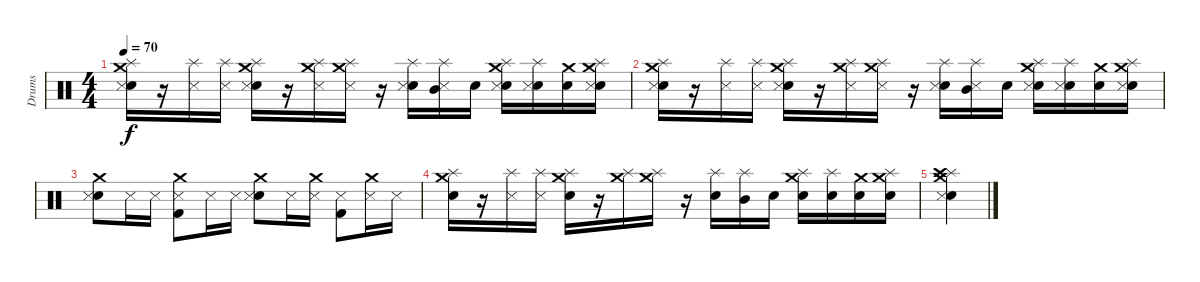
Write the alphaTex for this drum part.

\track ("Drums" "Drums") {instrument percussion}
\staff {score}
\articulation defaults
\ts (4 4)
\tempo 70
\clef neutral
\ks c
("Splash (hit)" "Snare (hit) 2" "Crash medium (hit)" "Snare (side stick) 3").16{dy f} r.16 ("Splash (hit)" "Snare (side stick) 3").16 ("Splash (hit)" "Snare (side stick) 3").16 ("Splash (hit)" "Snare (hit) 2" "Crash medium (hit)" "Snare (side stick) 3").16 r.16 ("Splash (hit)" "Crash medium (hit)" "Snare (side stick) 3").16 ("Splash (hit)" "Crash medium (hit)" "Snare (side stick) 3").16 r.16 ("Splash (hit)" "Snare (hit) 2" "Snare (side stick) 3").16 ("Splash (hit)" "Mid Tom (hit)" "Snare (side stick) 3").16 "Snare (hit) 2".16 ("Splash (hit)" "Snare (hit) 2" "Crash medium (hit)" "Snare (side stick) 3").16 ("Splash (hit)" "Snare (hit) 2" "Snare (side stick) 3").16 ("Snare (hit) 2" "Crash medium (hit)").16 ("Splash (hit)" "Snare (hit) 2" "Crash medium (hit)" "Snare (side stick) 3").16 |
("Splash (hit)" "Snare (hit) 2" "Crash medium (hit)" "Snare (side stick) 3").16 r.16 ("Splash (hit)" "Snare (side stick) 3").16 ("Splash (hit)" "Snare (side stick) 3").16 ("Splash (hit)" "Snare (hit) 2" "Crash medium (hit)" "Snare (side stick) 3").16 r.16 ("Splash (hit)" "Crash medium (hit)" "Snare (side stick) 3").16 ("Splash (hit)" "Crash medium (hit)" "Snare (side stick) 3").16 r.16 ("Splash (hit)" "Snare (hit) 2" "Snare (side stick) 3").16 ("Splash (hit)" "Mid Tom (hit)" "Snare (side stick) 3").16 "Snare (hit) 2".16 ("Splash (hit)" "Snare (hit) 2" "Crash medium (hit)" "Snare (side stick) 3").16 ("Splash (hit)" "Snare (hit) 2" "Snare (side stick) 3").16 ("Snare (hit) 2" "Crash medium (hit)").16 ("Splash (hit)" "Snare (hit) 2" "Crash medium (hit)" "Snare (side stick) 3").16 |
("Snare (hit) 2" "Crash medium (hit)" "Snare (side stick) 3").8 "Snare (side stick) 3".16 "Snare (side stick) 3".16 ("Kick (hit) 2" "Crash medium (hit)" "Snare (side stick) 3").8 "Snare (side stick) 3".16 "Snare (side stick) 3".16 ("Snare (hit) 2" "Crash medium (hit)" "Snare (side stick) 3").8 "Snare (side stick) 3".16 ("Crash medium (hit)" "Snare (side stick) 3").16 ("Kick (hit) 2" "Snare (side stick) 3").8 ("Crash medium (hit)" "Snare (side stick) 3").16 "Snare (side stick) 3".16 |
("Splash (hit)" "Snare (hit) 2" "Crash medium (hit)").16 r.16 ("Splash (hit)" "Snare (side stick) 3").16 ("Splash (hit)" "Snare (side stick) 3").16 ("Splash (hit)" "Snare (hit) 2" "Crash medium (hit)").16 r.16 ("Splash (hit)" "Crash medium (hit)").16 ("Splash (hit)" "Crash medium (hit)").16 r.16 ("Splash (hit)" "Snare (hit) 2").16 ("Splash (hit)" "Mid Tom (hit)").16 "Snare (hit) 2".16 ("Splash (hit)" "Snare (hit) 2" "Crash medium (hit)").16 ("Splash (hit)" "Snare (hit) 2").16 ("Snare (hit) 2" "Crash medium (hit)").16 ("Splash (hit)" "Snare (hit) 2" "Crash medium (hit)").16 |
("Snare (hit) 2" "Splash (hit)" "Crash medium (hit)" "Crash high (hit)" "Snare (side stick) 3").4
